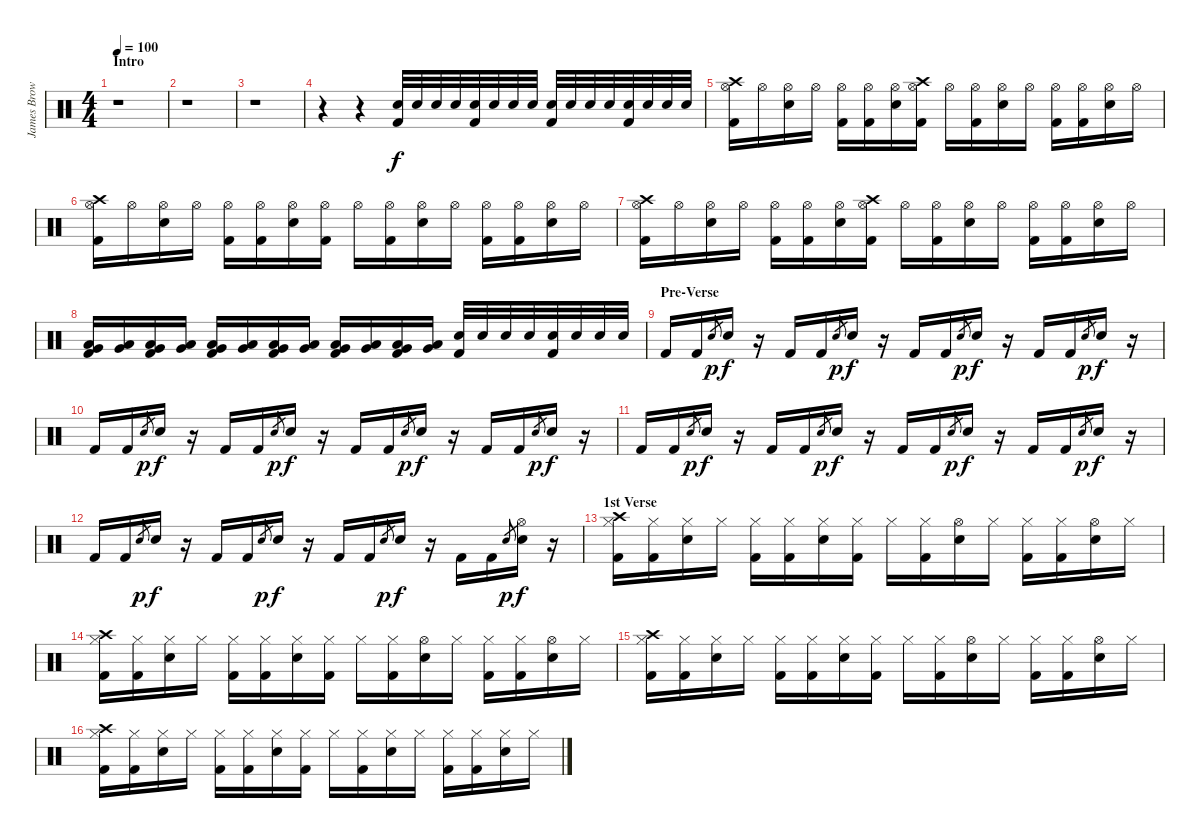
\track ("James Brown" "James Brow") {instrument percussion}
\staff {score}
\articulation defaults
\ts (4 4)
\section ("" "Intro")
\tempo 100
\clef neutral
\ks c
r.1{dy f} |
r.1 |
r.1 |
r.4 r.4 ("Snare (hit) 2" "Kick (hit) 2").32 "Snare (hit) 2".32 "Snare (hit) 2".32 "Snare (hit) 2".32 ("Snare (hit) 2" "Kick (hit) 2").32 "Snare (hit) 2".32 "Snare (hit) 2".32 "Snare (hit) 2".32 ("Snare (hit) 2" "Kick (hit) 2").32 "Snare (hit) 2".32 "Snare (hit) 2".32 "Snare (hit) 2".32 ("Snare (hit) 2" "Kick (hit) 2").32 "Snare (hit) 2".32 "Snare (hit) 2".32 "Snare (hit) 2".32 |
("Crash high (hit)" "Hi-Hat (open)" "Kick (hit) 2").16 "Hi-Hat (open)".16 ("Hi-Hat (open)" "Snare (hit) 2").16 "Hi-Hat (open)".16 ("Hi-Hat (open)" "Kick (hit) 2").16 ("Hi-Hat (open)" "Kick (hit) 2").16 ("Hi-Hat (open)" "Snare (hit) 2").16 ("Crash high (hit)" "Hi-Hat (open)" "Kick (hit) 2").16 "Hi-Hat (open)".16 ("Hi-Hat (open)" "Kick (hit) 2").16 ("Hi-Hat (open)" "Snare (hit) 2").16 "Hi-Hat (open)".16 ("Hi-Hat (open)" "Kick (hit) 2").16 ("Hi-Hat (open)" "Kick (hit) 2").16 ("Hi-Hat (open)" "Snare (hit) 2").16 "Hi-Hat (open)".16 |
("Crash high (hit)" "Hi-Hat (open)" "Kick (hit) 2").16 "Hi-Hat (open)".16 ("Hi-Hat (open)" "Snare (hit) 2").16 "Hi-Hat (open)".16 ("Hi-Hat (open)" "Kick (hit) 2").16 ("Hi-Hat (open)" "Kick (hit) 2").16 ("Hi-Hat (open)" "Snare (hit) 2").16 ("Hi-Hat (open)" "Kick (hit) 2").16 "Hi-Hat (open)".16 ("Hi-Hat (open)" "Kick (hit) 2").16 ("Hi-Hat (open)" "Snare (hit) 2").16 "Hi-Hat (open)".16 ("Hi-Hat (open)" "Kick (hit) 2").16 ("Hi-Hat (open)" "Kick (hit) 2").16 ("Hi-Hat (open)" "Snare (hit) 2").16 "Hi-Hat (open)".16 |
("Crash high (hit)" "Hi-Hat (open)" "Kick (hit) 2").16 "Hi-Hat (open)".16 ("Hi-Hat (open)" "Snare (hit) 2").16 "Hi-Hat (open)".16 ("Hi-Hat (open)" "Kick (hit) 2").16 ("Hi-Hat (open)" "Kick (hit) 2").16 ("Hi-Hat (open)" "Snare (hit) 2").16 ("Crash high (hit)" "Hi-Hat (open)" "Kick (hit) 2").16 "Hi-Hat (open)".16 ("Hi-Hat (open)" "Kick (hit) 2").16 ("Hi-Hat (open)" "Snare (hit) 2").16 "Hi-Hat (open)".16 ("Hi-Hat (open)" "Kick (hit) 2").16 ("Hi-Hat (open)" "Kick (hit) 2").16 ("Hi-Hat (open)" "Snare (hit) 2").16 "Hi-Hat (open)".16 |
("Low Floor Tom (hit)" "Very Low Tom (hit)" "Kick (hit) 2").16 ("Low Floor Tom (hit)" "Very Low Tom (hit)").16 ("Low Floor Tom (hit)" "Very Low Tom (hit)" "Kick (hit) 2").16 ("Low Floor Tom (hit)" "Very Low Tom (hit)").16 ("Low Floor Tom (hit)" "Very Low Tom (hit)" "Kick (hit) 2").16 ("Low Floor Tom (hit)" "Very Low Tom (hit)").16 ("Low Floor Tom (hit)" "Very Low Tom (hit)" "Kick (hit) 2").16 ("Low Floor Tom (hit)" "Very Low Tom (hit)").16 ("Low Floor Tom (hit)" "Very Low Tom (hit)" "Kick (hit) 2").16 ("Low Floor Tom (hit)" "Very Low Tom (hit)").16 ("Low Floor Tom (hit)" "Very Low Tom (hit)" "Kick (hit) 2").16 ("Low Floor Tom (hit)" "Very Low Tom (hit)").16 ("Snare (hit) 2" "Kick (hit) 2").32 "Snare (hit) 2".32 "Snare (hit) 2".32 "Snare (hit) 2".32 ("Snare (hit) 2" "Kick (hit) 2").32 "Snare (hit) 2".32 "Snare (hit) 2".32 "Snare (hit) 2".32 |
\section ("" "Pre-Verse")
"Kick (hit) 2".16 "Kick (hit) 2".16 "Snare (hit) 2".8{gr dy p} "Snare (hit) 2".16{dy f} r.16 "Kick (hit) 2".16 "Kick (hit) 2".16 "Snare (hit) 2".8{gr dy p} "Snare (hit) 2".16{dy f} r.16 "Kick (hit) 2".16 "Kick (hit) 2".16 "Snare (hit) 2".8{gr dy p} "Snare (hit) 2".16{dy f} r.16 "Kick (hit) 2".16 "Kick (hit) 2".16 "Snare (hit) 2".8{gr dy p} "Snare (hit) 2".16{dy f} r.16 |
"Kick (hit) 2".16 "Kick (hit) 2".16 "Snare (hit) 2".8{gr dy p} "Snare (hit) 2".16{dy f} r.16 "Kick (hit) 2".16 "Kick (hit) 2".16 "Snare (hit) 2".8{gr dy p} "Snare (hit) 2".16{dy f} r.16 "Kick (hit) 2".16 "Kick (hit) 2".16 "Snare (hit) 2".8{gr dy p} "Snare (hit) 2".16{dy f} r.16 "Kick (hit) 2".16 "Kick (hit) 2".16 "Snare (hit) 2".8{gr dy p} "Snare (hit) 2".16{dy f} r.16 |
"Kick (hit) 2".16 "Kick (hit) 2".16 "Snare (hit) 2".8{gr dy p} "Snare (hit) 2".16{dy f} r.16 "Kick (hit) 2".16 "Kick (hit) 2".16 "Snare (hit) 2".8{gr dy p} "Snare (hit) 2".16{dy f} r.16 "Kick (hit) 2".16 "Kick (hit) 2".16 "Snare (hit) 2".8{gr dy p} "Snare (hit) 2".16{dy f} r.16 "Kick (hit) 2".16 "Kick (hit) 2".16 "Snare (hit) 2".8{gr dy p} "Snare (hit) 2".16{dy f} r.16 |
"Kick (hit) 2".16 "Kick (hit) 2".16 "Snare (hit) 2".8{gr dy p} "Snare (hit) 2".16{dy f} r.16 "Kick (hit) 2".16 "Kick (hit) 2".16 "Snare (hit) 2".8{gr dy p} "Snare (hit) 2".16{dy f} r.16 "Kick (hit) 2".16 "Kick (hit) 2".16 "Snare (hit) 2".8{gr dy p} "Snare (hit) 2".16{dy f} r.16 "Kick (hit) 2".16 "Kick (hit) 2".16 "Snare (hit) 2".8{gr dy p} ("Snare (hit) 2" "Hi-Hat (open)").16{dy f} r.16 |
\section ("" "1st Verse")
("Crash high (hit)" "Hi-Hat (closed)" "Kick (hit) 2").16 ("Hi-Hat (closed)" "Kick (hit) 2").16 ("Hi-Hat (closed)" "Snare (hit) 2").16 "Hi-Hat (closed)".16 ("Hi-Hat (closed)" "Kick (hit) 2").16 ("Hi-Hat (closed)" "Kick (hit) 2").16 ("Hi-Hat (closed)" "Snare (hit) 2").16 ("Hi-Hat (closed)" "Kick (hit) 2").16 "Hi-Hat (closed)".16 ("Hi-Hat (closed)" "Kick (hit) 2").16 ("Hi-Hat (open)" "Snare (hit) 2").16 "Hi-Hat (closed)".16 ("Hi-Hat (closed)" "Kick (hit) 2").16 ("Hi-Hat (closed)" "Kick (hit) 2").16 ("Hi-Hat (open)" "Snare (hit) 2").16 "Hi-Hat (closed)".16 |
("Crash high (hit)" "Hi-Hat (closed)" "Kick (hit) 2").16 ("Hi-Hat (closed)" "Kick (hit) 2").16 ("Hi-Hat (closed)" "Snare (hit) 2").16 "Hi-Hat (closed)".16 ("Hi-Hat (closed)" "Kick (hit) 2").16 ("Hi-Hat (closed)" "Kick (hit) 2").16 ("Hi-Hat (closed)" "Snare (hit) 2").16 ("Hi-Hat (closed)" "Kick (hit) 2").16 "Hi-Hat (closed)".16 ("Hi-Hat (closed)" "Kick (hit) 2").16 ("Hi-Hat (open)" "Snare (hit) 2").16 "Hi-Hat (closed)".16 ("Hi-Hat (closed)" "Kick (hit) 2").16 ("Hi-Hat (closed)" "Kick (hit) 2").16 ("Hi-Hat (open)" "Snare (hit) 2").16 "Hi-Hat (closed)".16 |
("Crash high (hit)" "Hi-Hat (closed)" "Kick (hit) 2").16 ("Hi-Hat (closed)" "Kick (hit) 2").16 ("Hi-Hat (closed)" "Snare (hit) 2").16 "Hi-Hat (closed)".16 ("Hi-Hat (closed)" "Kick (hit) 2").16 ("Hi-Hat (closed)" "Kick (hit) 2").16 ("Hi-Hat (closed)" "Snare (hit) 2").16 ("Hi-Hat (closed)" "Kick (hit) 2").16 "Hi-Hat (closed)".16 ("Hi-Hat (closed)" "Kick (hit) 2").16 ("Hi-Hat (open)" "Snare (hit) 2").16 "Hi-Hat (closed)".16 ("Hi-Hat (closed)" "Kick (hit) 2").16 ("Hi-Hat (closed)" "Kick (hit) 2").16 ("Hi-Hat (open)" "Snare (hit) 2").16 "Hi-Hat (closed)".16 |
("Crash high (hit)" "Hi-Hat (closed)" "Kick (hit) 2").16 ("Hi-Hat (closed)" "Kick (hit) 2").16 ("Hi-Hat (closed)" "Snare (hit) 2").16 "Hi-Hat (closed)".16 ("Hi-Hat (closed)" "Kick (hit) 2").16 ("Hi-Hat (closed)" "Kick (hit) 2").16 ("Hi-Hat (closed)" "Snare (hit) 2").16 ("Hi-Hat (closed)" "Kick (hit) 2").16 "Hi-Hat (closed)".16 ("Hi-Hat (closed)" "Kick (hit) 2").16 ("Hi-Hat (closed)" "Snare (hit) 2").16 "Hi-Hat (closed)".16 ("Hi-Hat (closed)" "Kick (hit) 2").16 ("Hi-Hat (closed)" "Kick (hit) 2").16 ("Hi-Hat (closed)" "Snare (hit) 2").16 "Hi-Hat (closed)".16
